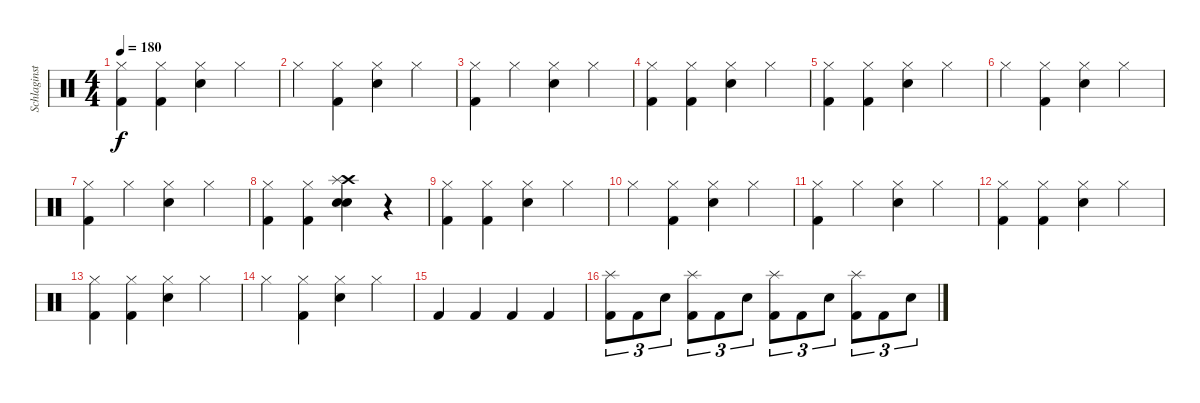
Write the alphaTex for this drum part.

\track ("Schlaginstrumente - Auswahl" "Schlaginst") {instrument percussion}
\staff {score}
\articulation defaults
\ts (4 4)
\tempo 180
\clef neutral
\ks c
("Hi-Hat (closed)" "Kick (hit) 2").4{dy f} ("Hi-Hat (closed)" "Kick (hit) 2").4 ("Hi-Hat (closed)" "Snare (hit) 2").4 "Hi-Hat (closed)".4 |
"Hi-Hat (closed)".4 ("Hi-Hat (closed)" "Kick (hit) 2").4 ("Hi-Hat (closed)" "Snare (hit) 2").4 "Hi-Hat (closed)".4 |
("Hi-Hat (closed)" "Kick (hit) 2").4 "Hi-Hat (closed)".4 ("Hi-Hat (closed)" "Snare (hit) 2").4 "Hi-Hat (closed)".4 |
("Hi-Hat (closed)" "Kick (hit) 2").4 ("Hi-Hat (closed)" "Kick (hit) 2").4 ("Hi-Hat (closed)" "Snare (hit) 2").4 "Hi-Hat (closed)".4 |
("Hi-Hat (closed)" "Kick (hit) 2").4 ("Hi-Hat (closed)" "Kick (hit) 2").4 ("Hi-Hat (closed)" "Snare (hit) 2").4 "Hi-Hat (closed)".4 |
"Hi-Hat (closed)".4 ("Hi-Hat (closed)" "Kick (hit) 2").4 ("Hi-Hat (closed)" "Snare (hit) 2").4 "Hi-Hat (closed)".4 |
("Hi-Hat (closed)" "Kick (hit) 2").4 "Hi-Hat (closed)".4 ("Hi-Hat (closed)" "Snare (hit) 2").4 "Hi-Hat (closed)".4 |
("Hi-Hat (closed)" "Kick (hit) 2").4 ("Hi-Hat (closed)" "Kick (hit) 2").4 ("Crash high (hit)" "Splash (hit)" "Snare (hit) 2" "Snare (hit) 2").4 r.4 |
("Hi-Hat (closed)" "Kick (hit) 2").4 ("Hi-Hat (closed)" "Kick (hit) 2").4 ("Hi-Hat (closed)" "Snare (hit) 2").4 "Hi-Hat (closed)".4 |
"Hi-Hat (closed)".4 ("Hi-Hat (closed)" "Kick (hit) 2").4 ("Hi-Hat (closed)" "Snare (hit) 2").4 "Hi-Hat (closed)".4 |
("Hi-Hat (closed)" "Kick (hit) 2").4 "Hi-Hat (closed)".4 ("Hi-Hat (closed)" "Snare (hit) 2").4 "Hi-Hat (closed)".4 |
("Hi-Hat (closed)" "Kick (hit) 2").4 ("Hi-Hat (closed)" "Kick (hit) 2").4 ("Hi-Hat (closed)" "Snare (hit) 2").4 "Hi-Hat (closed)".4 |
("Hi-Hat (closed)" "Kick (hit) 2").4 ("Hi-Hat (closed)" "Kick (hit) 2").4 ("Hi-Hat (closed)" "Snare (hit) 2").4 "Hi-Hat (closed)".4 |
"Hi-Hat (closed)".4 ("Hi-Hat (closed)" "Kick (hit) 2").4 ("Hi-Hat (closed)" "Snare (hit) 2").4 "Hi-Hat (closed)".4 |
"Kick (hit) 2".4 "Kick (hit) 2".4 "Kick (hit) 2".4 "Kick (hit) 2".4 |
("Splash (hit)" "Kick (hit) 2").8{tu (3 2)} "Kick (hit) 2".8{tu (3 2)} "Snare (hit) 2".8{tu (3 2)} ("Splash (hit)" "Kick (hit) 2").8{tu (3 2)} "Kick (hit) 2".8{tu (3 2)} "Snare (hit) 2".8{tu (3 2)} ("Splash (hit)" "Kick (hit) 2").8{tu (3 2)} "Kick (hit) 2".8{tu (3 2)} "Snare (hit) 2".8{tu (3 2)} ("Splash (hit)" "Kick (hit) 2").8{tu (3 2)} "Kick (hit) 2".8{tu (3 2)} "Snare (hit) 2".8{tu (3 2)}
